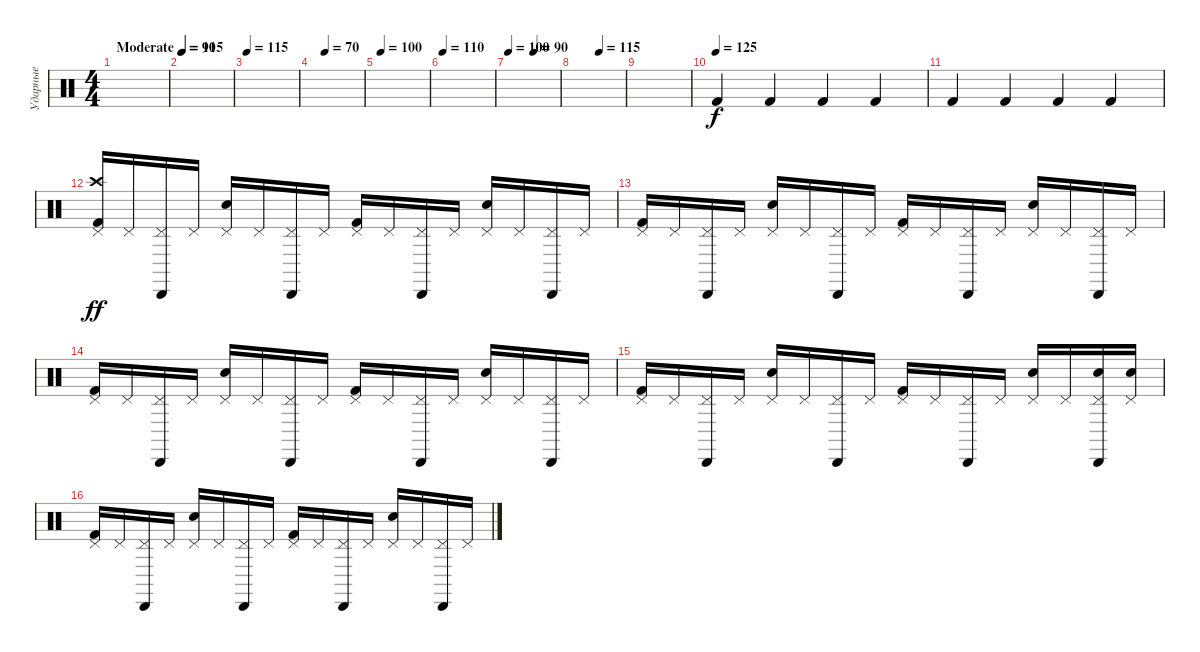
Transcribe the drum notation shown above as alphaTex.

\track ("Ударные" "Ударные") {instrument percussion}
\staff {score}
\articulation defaults
\ts (4 4)
\tempo (115 "Moderate")
\clef neutral
\ks c
|
\tempo 90
|
\tempo 115
|
\tempo (70 0.25)
|
\tempo (100 0.0625)
|
\tempo 110
|
\tempo 100
\tempo (90 0.5)
|
\tempo (115 0.5)
|
|
\tempo (125)
"Kick (hit) 2".4 "Kick (hit) 2".4 "Kick (hit) 2".4 "Kick (hit) 2".4 |
"Kick (hit) 2".4 "Kick (hit) 2".4 "Kick (hit) 2".4 "Kick (hit) 2".4 |
("Crash high (hit)" "Kick (hit) 2" "Pedal Hi-Hat (hit)").16{dy ff} "Pedal Hi-Hat (hit)".16 ("Cabasa (hit)" "Pedal Hi-Hat (hit)").16 "Pedal Hi-Hat (hit)".16 ("Snare (hit) 2" "Pedal Hi-Hat (hit)").16 "Pedal Hi-Hat (hit)".16 ("Cabasa (hit)" "Pedal Hi-Hat (hit)").16 "Pedal Hi-Hat (hit)".16 ("Kick (hit) 2" "Pedal Hi-Hat (hit)").16 "Pedal Hi-Hat (hit)".16 ("Cabasa (hit)" "Pedal Hi-Hat (hit)").16 "Pedal Hi-Hat (hit)".16 ("Snare (hit) 2" "Pedal Hi-Hat (hit)").16 "Pedal Hi-Hat (hit)".16 ("Cabasa (hit)" "Pedal Hi-Hat (hit)").16 "Pedal Hi-Hat (hit)".16 |
("Kick (hit) 2" "Pedal Hi-Hat (hit)").16 "Pedal Hi-Hat (hit)".16 ("Cabasa (hit)" "Pedal Hi-Hat (hit)").16 "Pedal Hi-Hat (hit)".16 ("Snare (hit) 2" "Pedal Hi-Hat (hit)").16 "Pedal Hi-Hat (hit)".16 ("Cabasa (hit)" "Pedal Hi-Hat (hit)").16 "Pedal Hi-Hat (hit)".16 ("Kick (hit) 2" "Pedal Hi-Hat (hit)").16 "Pedal Hi-Hat (hit)".16 ("Cabasa (hit)" "Pedal Hi-Hat (hit)").16 "Pedal Hi-Hat (hit)".16 ("Snare (hit) 2" "Pedal Hi-Hat (hit)").16 "Pedal Hi-Hat (hit)".16 ("Cabasa (hit)" "Pedal Hi-Hat (hit)").16 "Pedal Hi-Hat (hit)".16 |
("Kick (hit) 2" "Pedal Hi-Hat (hit)").16 "Pedal Hi-Hat (hit)".16 ("Cabasa (hit)" "Pedal Hi-Hat (hit)").16 "Pedal Hi-Hat (hit)".16 ("Snare (hit) 2" "Pedal Hi-Hat (hit)").16 "Pedal Hi-Hat (hit)".16 ("Cabasa (hit)" "Pedal Hi-Hat (hit)").16 "Pedal Hi-Hat (hit)".16 ("Kick (hit) 2" "Pedal Hi-Hat (hit)").16 "Pedal Hi-Hat (hit)".16 ("Cabasa (hit)" "Pedal Hi-Hat (hit)").16 "Pedal Hi-Hat (hit)".16 ("Snare (hit) 2" "Pedal Hi-Hat (hit)").16 "Pedal Hi-Hat (hit)".16 ("Cabasa (hit)" "Pedal Hi-Hat (hit)").16 "Pedal Hi-Hat (hit)".16 |
("Kick (hit) 2" "Pedal Hi-Hat (hit)").16 "Pedal Hi-Hat (hit)".16 ("Cabasa (hit)" "Pedal Hi-Hat (hit)").16 "Pedal Hi-Hat (hit)".16 ("Snare (hit) 2" "Pedal Hi-Hat (hit)").16 "Pedal Hi-Hat (hit)".16 ("Cabasa (hit)" "Pedal Hi-Hat (hit)").16 "Pedal Hi-Hat (hit)".16 ("Kick (hit) 2" "Pedal Hi-Hat (hit)").16 "Pedal Hi-Hat (hit)".16 ("Cabasa (hit)" "Pedal Hi-Hat (hit)").16 "Pedal Hi-Hat (hit)".16 ("Snare (hit) 2" "Pedal Hi-Hat (hit)").16 "Pedal Hi-Hat (hit)".16 ("Cabasa (hit)" "Electric Snare (hit)" "Pedal Hi-Hat (hit)").16 ("Electric Snare (hit)" "Pedal Hi-Hat (hit)").16 |
("Kick (hit) 2" "Pedal Hi-Hat (hit)").16 "Pedal Hi-Hat (hit)".16 ("Cabasa (hit)" "Pedal Hi-Hat (hit)").16 "Pedal Hi-Hat (hit)".16 ("Snare (hit) 2" "Pedal Hi-Hat (hit)").16 "Pedal Hi-Hat (hit)".16 ("Cabasa (hit)" "Pedal Hi-Hat (hit)").16 "Pedal Hi-Hat (hit)".16 ("Kick (hit) 2" "Pedal Hi-Hat (hit)").16 "Pedal Hi-Hat (hit)".16 ("Cabasa (hit)" "Pedal Hi-Hat (hit)").16 "Pedal Hi-Hat (hit)".16 ("Snare (hit) 2" "Pedal Hi-Hat (hit)").16 "Pedal Hi-Hat (hit)".16 ("Cabasa (hit)" "Pedal Hi-Hat (hit)").16 "Pedal Hi-Hat (hit)".16
